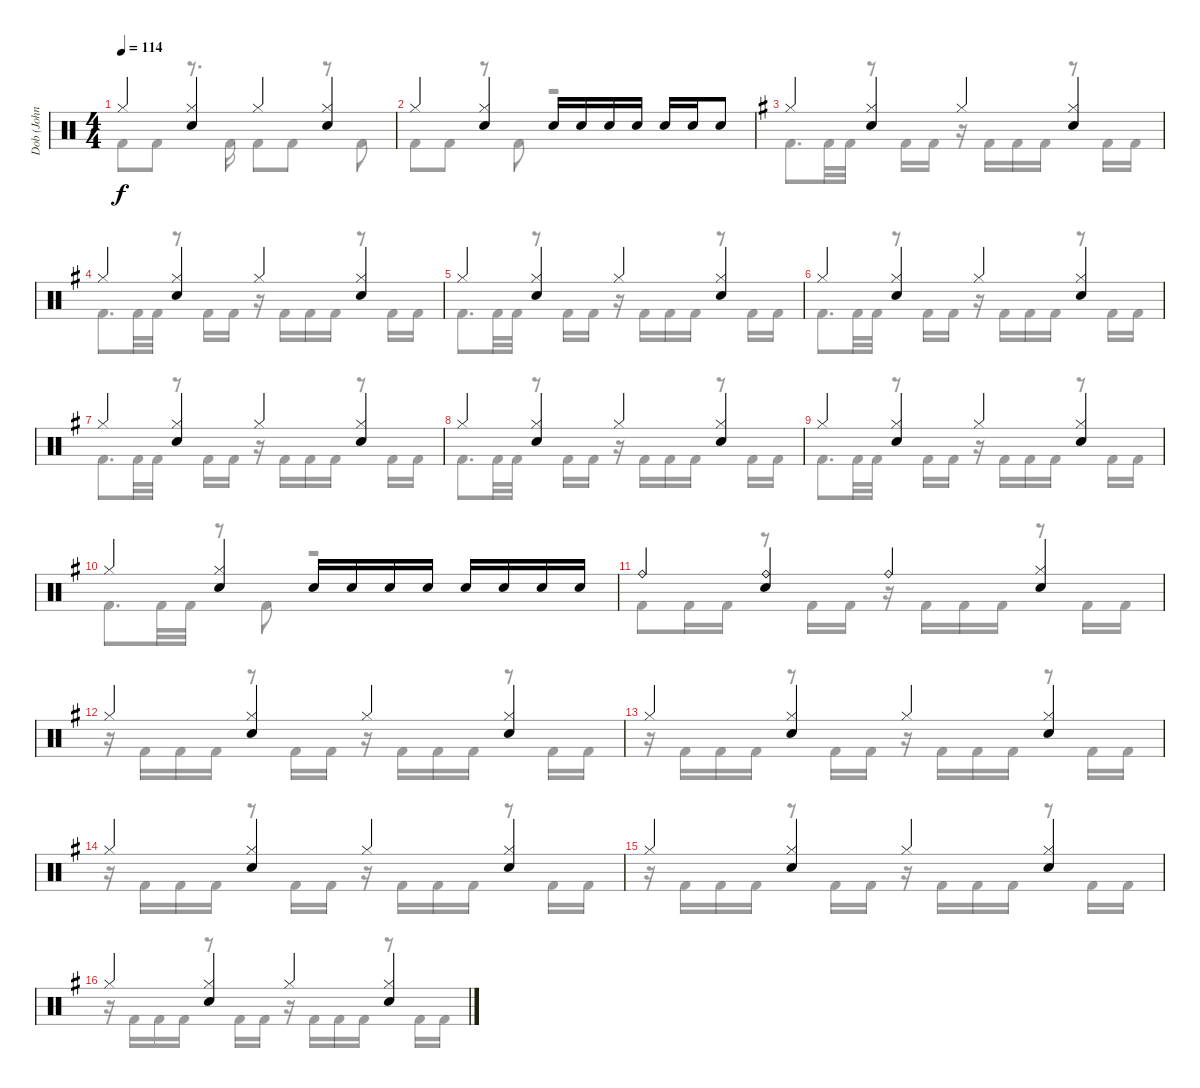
\track ("Dob (John Macaluso)" "Dob (John ") {instrument percussion}
\staff {score}
\articulation defaults
\voice
\ts (4 4)
\tempo 114
\clef neutral
\ks c "Hi-Hat (closed)".4{dy f}
("Hi-Hat (closed)" "Electric Snare (hit)").4 "Hi-Hat (closed)".4 ("Hi-Hat (closed)" "Electric Snare (hit)").4 |
"Hi-Hat (closed)".4 ("Hi-Hat (closed)" "Electric Snare (hit)").4 "Electric Snare (hit)".16 "Electric Snare (hit)".16 "Electric Snare (hit)".16 "Electric Snare (hit)".16 "Electric Snare (hit)".16 "Electric Snare (hit)".16 "Electric Snare (hit)".8 |
\ks g "Hi-Hat (closed)".4
("Hi-Hat (closed)" "Electric Snare (hit)").4 "Hi-Hat (closed)".4 ("Hi-Hat (closed)" "Electric Snare (hit)").4 |
"Hi-Hat (closed)".4 ("Hi-Hat (closed)" "Electric Snare (hit)").4 "Hi-Hat (closed)".4 ("Hi-Hat (closed)" "Electric Snare (hit)").4 |
"Hi-Hat (closed)".4 ("Hi-Hat (closed)" "Electric Snare (hit)").4 "Hi-Hat (closed)".4 ("Hi-Hat (closed)" "Electric Snare (hit)").4 |
"Hi-Hat (closed)".4 ("Hi-Hat (closed)" "Electric Snare (hit)").4 "Hi-Hat (closed)".4 ("Hi-Hat (closed)" "Electric Snare (hit)").4 |
"Hi-Hat (closed)".4 ("Hi-Hat (closed)" "Electric Snare (hit)").4 "Hi-Hat (closed)".4 ("Hi-Hat (closed)" "Electric Snare (hit)").4 |
"Hi-Hat (closed)".4 ("Hi-Hat (closed)" "Electric Snare (hit)").4 "Hi-Hat (closed)".4 ("Hi-Hat (closed)" "Electric Snare (hit)").4 |
"Hi-Hat (closed)".4 ("Hi-Hat (closed)" "Electric Snare (hit)").4 "Hi-Hat (closed)".4 ("Hi-Hat (closed)" "Electric Snare (hit)").4 |
"Hi-Hat (closed)".4 ("Hi-Hat (closed)" "Electric Snare (hit)").4 "Electric Snare (hit)".16 "Electric Snare (hit)".16 "Electric Snare (hit)".16 "Electric Snare (hit)".16 "Electric Snare (hit)".16 "Electric Snare (hit)".16 "Electric Snare (hit)".16 "Electric Snare (hit)".16 |
"Ride (bell)".4 ("Ride (bell)" "Electric Snare (hit)").4 "Ride (bell)".4 ("Hi-Hat (closed)" "Electric Snare (hit)").4 |
"Hi-Hat (closed)".4 ("Hi-Hat (closed)" "Electric Snare (hit)").4 "Hi-Hat (closed)".4 ("Hi-Hat (closed)" "Electric Snare (hit)").4 |
"Hi-Hat (closed)".4 ("Hi-Hat (closed)" "Electric Snare (hit)").4 "Hi-Hat (closed)".4 ("Hi-Hat (closed)" "Electric Snare (hit)").4 |
"Hi-Hat (closed)".4 ("Hi-Hat (closed)" "Electric Snare (hit)").4 "Hi-Hat (closed)".4 ("Hi-Hat (closed)" "Electric Snare (hit)").4 |
"Hi-Hat (closed)".4 ("Hi-Hat (closed)" "Electric Snare (hit)").4 "Hi-Hat (closed)".4 ("Hi-Hat (closed)" "Electric Snare (hit)").4 |
"Hi-Hat (closed)".4 ("Hi-Hat (closed)" "Electric Snare (hit)").4 "Hi-Hat (closed)".4 ("Hi-Hat (closed)" "Electric Snare (hit)").4
\voice
\clef neutral
\ottava regular
\simile none
\ks c "Kick (hit) 2".8{dy f} "Kick (hit) 2".8
r.8{d} "Kick (hit) 2".16 "Kick (hit) 2".8 "Kick (hit) 2".8 r.8 "Kick (hit) 2".8 |
"Kick (hit) 2".8 "Kick (hit) 2".8 r.8 "Kick (hit) 2".8 r.2 |
\ks g "Kick (hit) 2".8{d} "Kick (hit) 2".32 "Kick (hit) 2".32
r.8 "Kick (hit) 2".16 "Kick (hit) 2".16 r.16 "Kick (hit) 2".16 "Kick (hit) 2".16 "Kick (hit) 2".16 r.8 "Kick (hit) 2".16 "Kick (hit) 2".16 |
"Kick (hit) 2".8{d} "Kick (hit) 2".32 "Kick (hit) 2".32 r.8 "Kick (hit) 2".16 "Kick (hit) 2".16 r.16 "Kick (hit) 2".16 "Kick (hit) 2".16 "Kick (hit) 2".16 r.8 "Kick (hit) 2".16 "Kick (hit) 2".16 |
"Kick (hit) 2".8{d} "Kick (hit) 2".32 "Kick (hit) 2".32 r.8 "Kick (hit) 2".16 "Kick (hit) 2".16 r.16 "Kick (hit) 2".16 "Kick (hit) 2".16 "Kick (hit) 2".16 r.8 "Kick (hit) 2".16 "Kick (hit) 2".16 |
"Kick (hit) 2".8{d} "Kick (hit) 2".32 "Kick (hit) 2".32 r.8 "Kick (hit) 2".16 "Kick (hit) 2".16 r.16 "Kick (hit) 2".16 "Kick (hit) 2".16 "Kick (hit) 2".16 r.8 "Kick (hit) 2".16 "Kick (hit) 2".16 |
"Kick (hit) 2".8{d} "Kick (hit) 2".32 "Kick (hit) 2".32 r.8 "Kick (hit) 2".16 "Kick (hit) 2".16 r.16 "Kick (hit) 2".16 "Kick (hit) 2".16 "Kick (hit) 2".16 r.8 "Kick (hit) 2".16 "Kick (hit) 2".16 |
"Kick (hit) 2".8{d} "Kick (hit) 2".32 "Kick (hit) 2".32 r.8 "Kick (hit) 2".16 "Kick (hit) 2".16 r.16 "Kick (hit) 2".16 "Kick (hit) 2".16 "Kick (hit) 2".16 r.8 "Kick (hit) 2".16 "Kick (hit) 2".16 |
"Kick (hit) 2".8{d} "Kick (hit) 2".32 "Kick (hit) 2".32 r.8 "Kick (hit) 2".16 "Kick (hit) 2".16 r.16 "Kick (hit) 2".16 "Kick (hit) 2".16 "Kick (hit) 2".16 r.8 "Kick (hit) 2".16 "Kick (hit) 2".16 |
"Kick (hit) 2".8{d} "Kick (hit) 2".32 "Kick (hit) 2".32 r.8 "Kick (hit) 2".8 r.2 |
"Kick (hit) 2".8 "Kick (hit) 2".16 "Kick (hit) 2".16 r.8 "Kick (hit) 2".16 "Kick (hit) 2".16 r.16 "Kick (hit) 2".16 "Kick (hit) 2".16 "Kick (hit) 2".16 r.8 "Kick (hit) 2".16 "Kick (hit) 2".16 |
r.16 "Kick (hit) 2".16 "Kick (hit) 2".16 "Kick (hit) 2".16 r.8 "Kick (hit) 2".16 "Kick (hit) 2".16 r.16 "Kick (hit) 2".16 "Kick (hit) 2".16 "Kick (hit) 2".16 r.8 "Kick (hit) 2".16 "Kick (hit) 2".16 |
r.16 "Kick (hit) 2".16 "Kick (hit) 2".16 "Kick (hit) 2".16 r.8 "Kick (hit) 2".16 "Kick (hit) 2".16 r.16 "Kick (hit) 2".16 "Kick (hit) 2".16 "Kick (hit) 2".16 r.8 "Kick (hit) 2".16 "Kick (hit) 2".16 |
r.16 "Kick (hit) 2".16 "Kick (hit) 2".16 "Kick (hit) 2".16 r.8 "Kick (hit) 2".16 "Kick (hit) 2".16 r.16 "Kick (hit) 2".16 "Kick (hit) 2".16 "Kick (hit) 2".16 r.8 "Kick (hit) 2".16 "Kick (hit) 2".16 |
r.16 "Kick (hit) 2".16 "Kick (hit) 2".16 "Kick (hit) 2".16 r.8 "Kick (hit) 2".16 "Kick (hit) 2".16 r.16 "Kick (hit) 2".16 "Kick (hit) 2".16 "Kick (hit) 2".16 r.8 "Kick (hit) 2".16 "Kick (hit) 2".16 |
r.16 "Kick (hit) 2".16 "Kick (hit) 2".16 "Kick (hit) 2".16 r.8 "Kick (hit) 2".16 "Kick (hit) 2".16 r.16 "Kick (hit) 2".16 "Kick (hit) 2".16 "Kick (hit) 2".16 r.8 "Kick (hit) 2".16 "Kick (hit) 2".16
